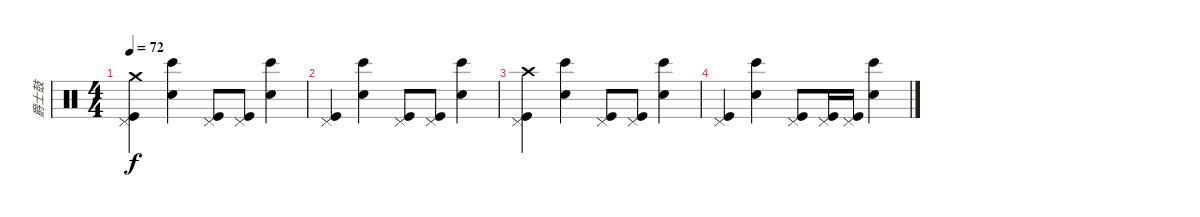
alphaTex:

\track ("爵士鼓" "爵士鼓") {instrument percussion}
\staff {score}
\articulation defaults
\ts (4 4)
\tempo 72
\clef neutral
\ks c
("Pedal Hi-Hat (hit)" "Kick (hit)" "Crash medium (hit)").4{dy f} ("Bongo High (hit)" "Hand Clap (hit)").4 ("Pedal Hi-Hat (hit)" "Kick (hit)").8 ("Pedal Hi-Hat (hit)" "Kick (hit)").8 ("Bongo High (hit)" "Hand Clap (hit)").4 |
("Pedal Hi-Hat (hit)" "Kick (hit)").4 ("Bongo High (hit)" "Hand Clap (hit)").4 ("Pedal Hi-Hat (hit)" "Kick (hit)").8 ("Pedal Hi-Hat (hit)" "Kick (hit)").8 ("Bongo High (hit)" "Hand Clap (hit)").4 |
("Pedal Hi-Hat (hit)" "Kick (hit)" "Crash high (hit)").4 ("Bongo High (hit)" "Hand Clap (hit)").4 ("Pedal Hi-Hat (hit)" "Kick (hit)").8 ("Pedal Hi-Hat (hit)" "Kick (hit)").8 ("Bongo High (hit)" "Hand Clap (hit)").4 |
("Pedal Hi-Hat (hit)" "Kick (hit)").4 ("Bongo High (hit)" "Hand Clap (hit)").4 ("Pedal Hi-Hat (hit)" "Kick (hit)").8 ("Pedal Hi-Hat (hit)" "Kick (hit)").16 ("Pedal Hi-Hat (hit)" "Kick (hit)").16 ("Bongo High (hit)" "Hand Clap (hit)").4
